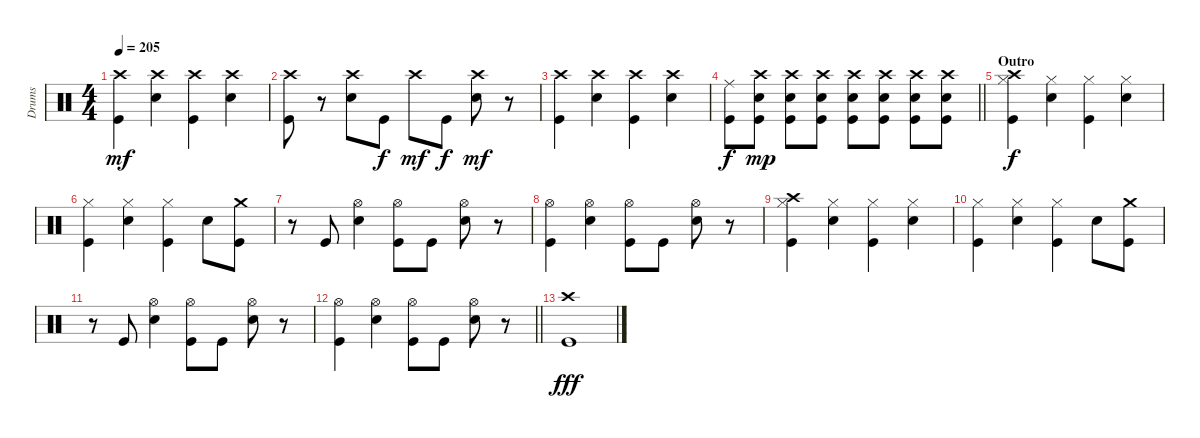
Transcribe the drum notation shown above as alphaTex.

\track ("Drums" "Drums") {instrument percussion}
\staff {score}
\articulation defaults
\ts (4 4)
\tempo 205
\clef neutral
\ks c
("Crash high (hit)" "Kick (hit)").4{dy mf} ("Crash high (hit)" "Electric Snare (hit)").4 ("Crash high (hit)" "Kick (hit)").4 ("Crash high (hit)" "Electric Snare (hit)").4 |
("Crash high (hit)" "Kick (hit)").8 r.8 ("Crash high (hit)" "Electric Snare (hit)").8 "Kick (hit)".8{dy f} "Crash high (hit)".8{dy mf} "Kick (hit)".8{dy f} ("Crash high (hit)" "Electric Snare (hit)").8{dy mf} r.8 |
("Crash high (hit)" "Kick (hit)").4 ("Crash high (hit)" "Electric Snare (hit)").4 ("Crash high (hit)" "Kick (hit)").4 ("Crash high (hit)" "Electric Snare (hit)").4 |
\barLineRight lightlight
("Ride (middle)" "Kick (hit)").8{dy f} ("Crash high (hit)" "Electric Snare (hit)" "Kick (hit)").8{dy mp} ("Crash high (hit)" "Electric Snare (hit)" "Kick (hit)").8 ("Crash high (hit)" "Electric Snare (hit)" "Kick (hit)").8 ("Crash high (hit)" "Electric Snare (hit)" "Kick (hit)").8 ("Crash high (hit)" "Electric Snare (hit)" "Kick (hit)").8 ("Crash high (hit)" "Electric Snare (hit)" "Kick (hit)").8 ("Crash high (hit)" "Electric Snare (hit)" "Kick (hit)").8 |
\section ("" "Outro")
("Crash high (hit)" "Hi-Hat (closed)" "Kick (hit)").4{dy f} ("Hi-Hat (closed)" "Electric Snare (hit)").4 ("Hi-Hat (closed)" "Kick (hit)").4 ("Hi-Hat (closed)" "Electric Snare (hit)").4 |
("Hi-Hat (closed)" "Kick (hit)").4 ("Hi-Hat (closed)" "Electric Snare (hit)").4 ("Hi-Hat (closed)" "Kick (hit)").4 "Electric Snare (hit)".8 ("Crash medium (hit)" "Kick (hit)").8 |
r.8 "Kick (hit)".8 ("Hi-Hat (open)" "Electric Snare (hit)").4 ("Hi-Hat (open)" "Kick (hit)").8 "Kick (hit)".8 ("Hi-Hat (open)" "Electric Snare (hit)").8 r.8 |
("Hi-Hat (open)" "Kick (hit)").4 ("Hi-Hat (open)" "Electric Snare (hit)").4 ("Hi-Hat (open)" "Kick (hit)").8 "Kick (hit)".8 ("Hi-Hat (open)" "Electric Snare (hit)").8 r.8 |
("Crash high (hit)" "Hi-Hat (closed)" "Kick (hit)").4 ("Hi-Hat (closed)" "Electric Snare (hit)").4 ("Hi-Hat (closed)" "Kick (hit)").4 ("Hi-Hat (closed)" "Electric Snare (hit)").4 |
("Hi-Hat (closed)" "Kick (hit)").4 ("Hi-Hat (closed)" "Electric Snare (hit)").4 ("Hi-Hat (closed)" "Kick (hit)").4 "Electric Snare (hit)".8 ("Crash medium (hit)" "Kick (hit)").8 |
r.8 "Kick (hit)".8 ("Hi-Hat (open)" "Electric Snare (hit)").4 ("Hi-Hat (open)" "Kick (hit)").8 "Kick (hit)".8 ("Hi-Hat (open)" "Electric Snare (hit)").8 r.8 |
\barLineRight lightlight
("Hi-Hat (open)" "Kick (hit)").4 ("Hi-Hat (open)" "Electric Snare (hit)").4 ("Hi-Hat (open)" "Kick (hit)").8 "Kick (hit)".8 ("Hi-Hat (open)" "Electric Snare (hit)").8 r.8 |
("Crash high (hit)" "Kick (hit)").1{dy fff}
